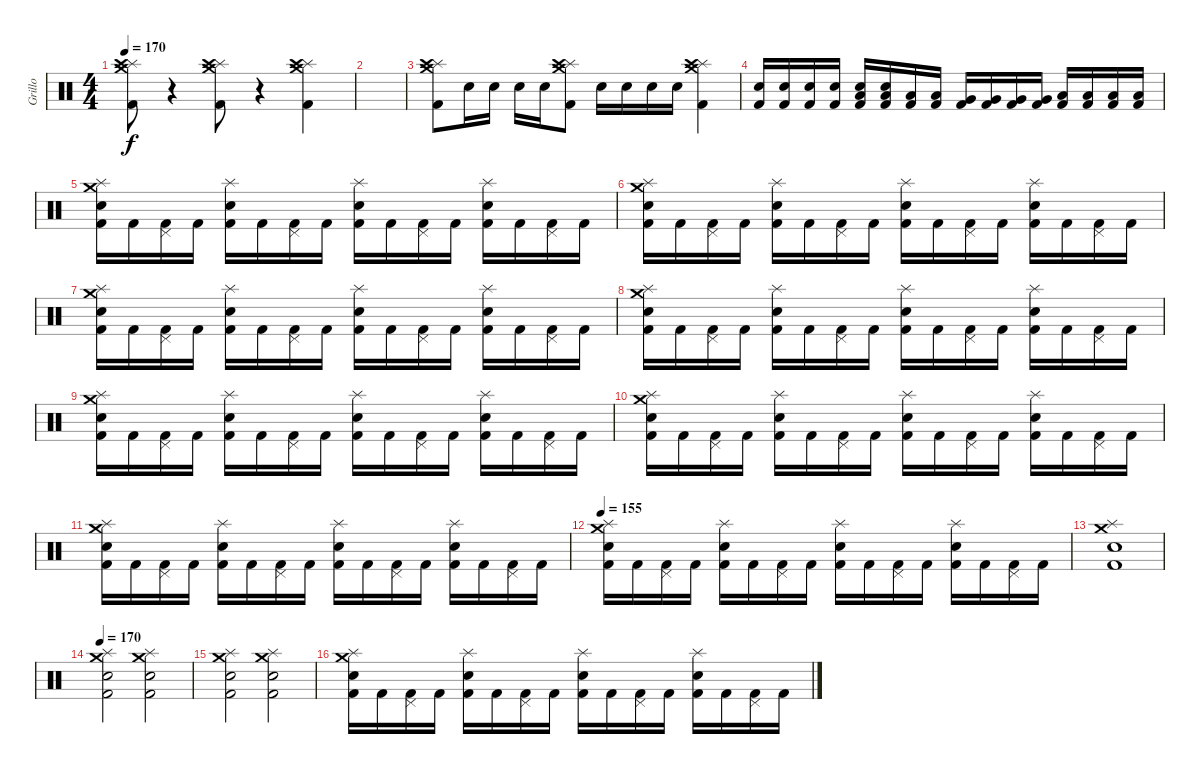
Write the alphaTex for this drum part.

\track ("Grillo" "Grillo") {instrument percussion}
\staff {score}
\articulation defaults
\ts (4 4)
\tempo 170
\clef neutral
\ks c
("Splash (hit)" "Crash high (hit)" "Crash medium (hit)" "Kick (hit) 2").8{dy f} r.4 ("Splash (hit)" "Crash high (hit)" "Crash medium (hit)" "Kick (hit) 2").8 r.4 ("Splash (hit)" "Crash high (hit)" "Crash medium (hit)" "Kick (hit) 2").4 |
|
("Splash (hit)" "Crash high (hit)" "Crash medium (hit)" "Kick (hit) 2").8 "Electric Snare (hit)".16 "Electric Snare (hit)".16 "Electric Snare (hit)".16 "Electric Snare (hit)".16 ("Splash (hit)" "Crash high (hit)" "Crash medium (hit)" "Kick (hit) 2").8 "Electric Snare (hit)".16 "Electric Snare (hit)".16 "Electric Snare (hit)".16 "Electric Snare (hit)".16 ("Splash (hit)" "Crash high (hit)" "Crash medium (hit)" "Kick (hit) 2").4 |
("Electric Snare (hit)" "Kick (hit) 2").16 ("Electric Snare (hit)" "Kick (hit) 2").16 ("Electric Snare (hit)" "Kick (hit) 2").16 ("Electric Snare (hit)" "Kick (hit) 2").16 ("Electric Snare (hit)" "Low Tom (hit)" "Kick (hit) 2").16 ("Electric Snare (hit)" "Low Tom (hit)" "Kick (hit) 2").16 ("Low Tom (hit)" "Kick (hit) 2").16 ("Low Tom (hit)" "Kick (hit) 2").16 ("Very Low Tom (hit)" "Kick (hit) 2").16 ("Very Low Tom (hit)" "Kick (hit) 2").16 ("Very Low Tom (hit)" "Kick (hit) 2").16 ("Very Low Tom (hit)" "Kick (hit) 2").16 ("Low Floor Tom (hit)" "Kick (hit) 2").16 ("Low Floor Tom (hit)" "Kick (hit) 2").16 ("Low Floor Tom (hit)" "Kick (hit) 2").16 ("Low Floor Tom (hit)" "Kick (hit) 2").16 |
("Electric Snare (hit)" "Splash (hit)" "Crash medium (hit)" "Kick (hit) 2").16 "Kick (hit) 2".16 ("Pedal Hi-Hat (hit)" "Kick (hit) 2").16 "Kick (hit) 2".16 ("Electric Snare (hit)" "Splash (hit)" "Kick (hit) 2").16 "Kick (hit) 2".16 ("Pedal Hi-Hat (hit)" "Kick (hit) 2").16 "Kick (hit) 2".16 ("Electric Snare (hit)" "Splash (hit)" "Kick (hit) 2").16 "Kick (hit) 2".16 ("Pedal Hi-Hat (hit)" "Kick (hit) 2").16 "Kick (hit) 2".16 ("Electric Snare (hit)" "Splash (hit)" "Kick (hit) 2").16 "Kick (hit) 2".16 ("Pedal Hi-Hat (hit)" "Kick (hit) 2").16 "Kick (hit) 2".16 |
("Electric Snare (hit)" "Splash (hit)" "Crash medium (hit)" "Kick (hit) 2").16 "Kick (hit) 2".16 ("Pedal Hi-Hat (hit)" "Kick (hit) 2").16 "Kick (hit) 2".16 ("Electric Snare (hit)" "Splash (hit)" "Kick (hit) 2").16 "Kick (hit) 2".16 ("Pedal Hi-Hat (hit)" "Kick (hit) 2").16 "Kick (hit) 2".16 ("Electric Snare (hit)" "Splash (hit)" "Kick (hit) 2").16 "Kick (hit) 2".16 ("Pedal Hi-Hat (hit)" "Kick (hit) 2").16 "Kick (hit) 2".16 ("Electric Snare (hit)" "Splash (hit)" "Kick (hit) 2").16 "Kick (hit) 2".16 ("Pedal Hi-Hat (hit)" "Kick (hit) 2").16 "Kick (hit) 2".16 |
("Electric Snare (hit)" "Splash (hit)" "Crash medium (hit)" "Kick (hit) 2").16 "Kick (hit) 2".16 ("Pedal Hi-Hat (hit)" "Kick (hit) 2").16 "Kick (hit) 2".16 ("Electric Snare (hit)" "Splash (hit)" "Kick (hit) 2").16 "Kick (hit) 2".16 ("Pedal Hi-Hat (hit)" "Kick (hit) 2").16 "Kick (hit) 2".16 ("Electric Snare (hit)" "Splash (hit)" "Kick (hit) 2").16 "Kick (hit) 2".16 ("Pedal Hi-Hat (hit)" "Kick (hit) 2").16 "Kick (hit) 2".16 ("Electric Snare (hit)" "Splash (hit)" "Kick (hit) 2").16 "Kick (hit) 2".16 ("Pedal Hi-Hat (hit)" "Kick (hit) 2").16 "Kick (hit) 2".16 |
("Electric Snare (hit)" "Splash (hit)" "Crash medium (hit)" "Kick (hit) 2").16 "Kick (hit) 2".16 ("Pedal Hi-Hat (hit)" "Kick (hit) 2").16 "Kick (hit) 2".16 ("Electric Snare (hit)" "Splash (hit)" "Kick (hit) 2").16 "Kick (hit) 2".16 ("Pedal Hi-Hat (hit)" "Kick (hit) 2").16 "Kick (hit) 2".16 ("Electric Snare (hit)" "Splash (hit)" "Kick (hit) 2").16 "Kick (hit) 2".16 ("Pedal Hi-Hat (hit)" "Kick (hit) 2").16 "Kick (hit) 2".16 ("Electric Snare (hit)" "Splash (hit)" "Kick (hit) 2").16 "Kick (hit) 2".16 ("Pedal Hi-Hat (hit)" "Kick (hit) 2").16 "Kick (hit) 2".16 |
("Electric Snare (hit)" "Splash (hit)" "Crash medium (hit)" "Kick (hit) 2").16 "Kick (hit) 2".16 ("Pedal Hi-Hat (hit)" "Kick (hit) 2").16 "Kick (hit) 2".16 ("Electric Snare (hit)" "Splash (hit)" "Kick (hit) 2").16 "Kick (hit) 2".16 ("Pedal Hi-Hat (hit)" "Kick (hit) 2").16 "Kick (hit) 2".16 ("Electric Snare (hit)" "Splash (hit)" "Kick (hit) 2").16 "Kick (hit) 2".16 ("Pedal Hi-Hat (hit)" "Kick (hit) 2").16 "Kick (hit) 2".16 ("Electric Snare (hit)" "Splash (hit)" "Kick (hit) 2").16 "Kick (hit) 2".16 ("Pedal Hi-Hat (hit)" "Kick (hit) 2").16 "Kick (hit) 2".16 |
("Electric Snare (hit)" "Splash (hit)" "Crash medium (hit)" "Kick (hit) 2").16 "Kick (hit) 2".16 ("Pedal Hi-Hat (hit)" "Kick (hit) 2").16 "Kick (hit) 2".16 ("Electric Snare (hit)" "Splash (hit)" "Kick (hit) 2").16 "Kick (hit) 2".16 ("Pedal Hi-Hat (hit)" "Kick (hit) 2").16 "Kick (hit) 2".16 ("Electric Snare (hit)" "Splash (hit)" "Kick (hit) 2").16 "Kick (hit) 2".16 ("Pedal Hi-Hat (hit)" "Kick (hit) 2").16 "Kick (hit) 2".16 ("Electric Snare (hit)" "Splash (hit)" "Kick (hit) 2").16 "Kick (hit) 2".16 ("Pedal Hi-Hat (hit)" "Kick (hit) 2").16 "Kick (hit) 2".16 |
("Electric Snare (hit)" "Splash (hit)" "Crash medium (hit)" "Kick (hit) 2").16 "Kick (hit) 2".16 ("Pedal Hi-Hat (hit)" "Kick (hit) 2").16 "Kick (hit) 2".16 ("Electric Snare (hit)" "Splash (hit)" "Kick (hit) 2").16 "Kick (hit) 2".16 ("Pedal Hi-Hat (hit)" "Kick (hit) 2").16 "Kick (hit) 2".16 ("Electric Snare (hit)" "Splash (hit)" "Kick (hit) 2").16 "Kick (hit) 2".16 ("Pedal Hi-Hat (hit)" "Kick (hit) 2").16 "Kick (hit) 2".16 ("Electric Snare (hit)" "Splash (hit)" "Kick (hit) 2").16 "Kick (hit) 2".16 ("Pedal Hi-Hat (hit)" "Kick (hit) 2").16 "Kick (hit) 2".16 |
\tempo 155
("Electric Snare (hit)" "Splash (hit)" "Crash medium (hit)" "Kick (hit) 2").16 "Kick (hit) 2".16 ("Pedal Hi-Hat (hit)" "Kick (hit) 2").16 "Kick (hit) 2".16 ("Electric Snare (hit)" "Splash (hit)" "Kick (hit) 2").16 "Kick (hit) 2".16 ("Pedal Hi-Hat (hit)" "Kick (hit) 2").16 "Kick (hit) 2".16 ("Electric Snare (hit)" "Splash (hit)" "Kick (hit) 2").16 "Kick (hit) 2".16 ("Pedal Hi-Hat (hit)" "Kick (hit) 2").16 "Kick (hit) 2".16 ("Electric Snare (hit)" "Splash (hit)" "Kick (hit) 2").16 "Kick (hit) 2".16 ("Pedal Hi-Hat (hit)" "Kick (hit) 2").16 "Kick (hit) 2".16 |
("Electric Snare (hit)" "Splash (hit)" "Crash medium (hit)" "Kick (hit) 2").1 |
\tempo 170
("Electric Snare (hit)" "Splash (hit)" "Crash medium (hit)" "Kick (hit) 2").2 ("Electric Snare (hit)" "Splash (hit)" "Crash medium (hit)" "Kick (hit) 2").2 |
("Electric Snare (hit)" "Splash (hit)" "Crash medium (hit)" "Kick (hit) 2").2 ("Electric Snare (hit)" "Splash (hit)" "Crash medium (hit)" "Kick (hit) 2").2 |
("Electric Snare (hit)" "Splash (hit)" "Crash medium (hit)" "Kick (hit) 2").16 "Kick (hit) 2".16 ("Pedal Hi-Hat (hit)" "Kick (hit) 2").16 "Kick (hit) 2".16 ("Electric Snare (hit)" "Splash (hit)" "Kick (hit) 2").16 "Kick (hit) 2".16 ("Pedal Hi-Hat (hit)" "Kick (hit) 2").16 "Kick (hit) 2".16 ("Electric Snare (hit)" "Splash (hit)" "Kick (hit) 2").16 "Kick (hit) 2".16 ("Pedal Hi-Hat (hit)" "Kick (hit) 2").16 "Kick (hit) 2".16 ("Electric Snare (hit)" "Splash (hit)" "Kick (hit) 2").16 "Kick (hit) 2".16 ("Pedal Hi-Hat (hit)" "Kick (hit) 2").16 "Kick (hit) 2".16
